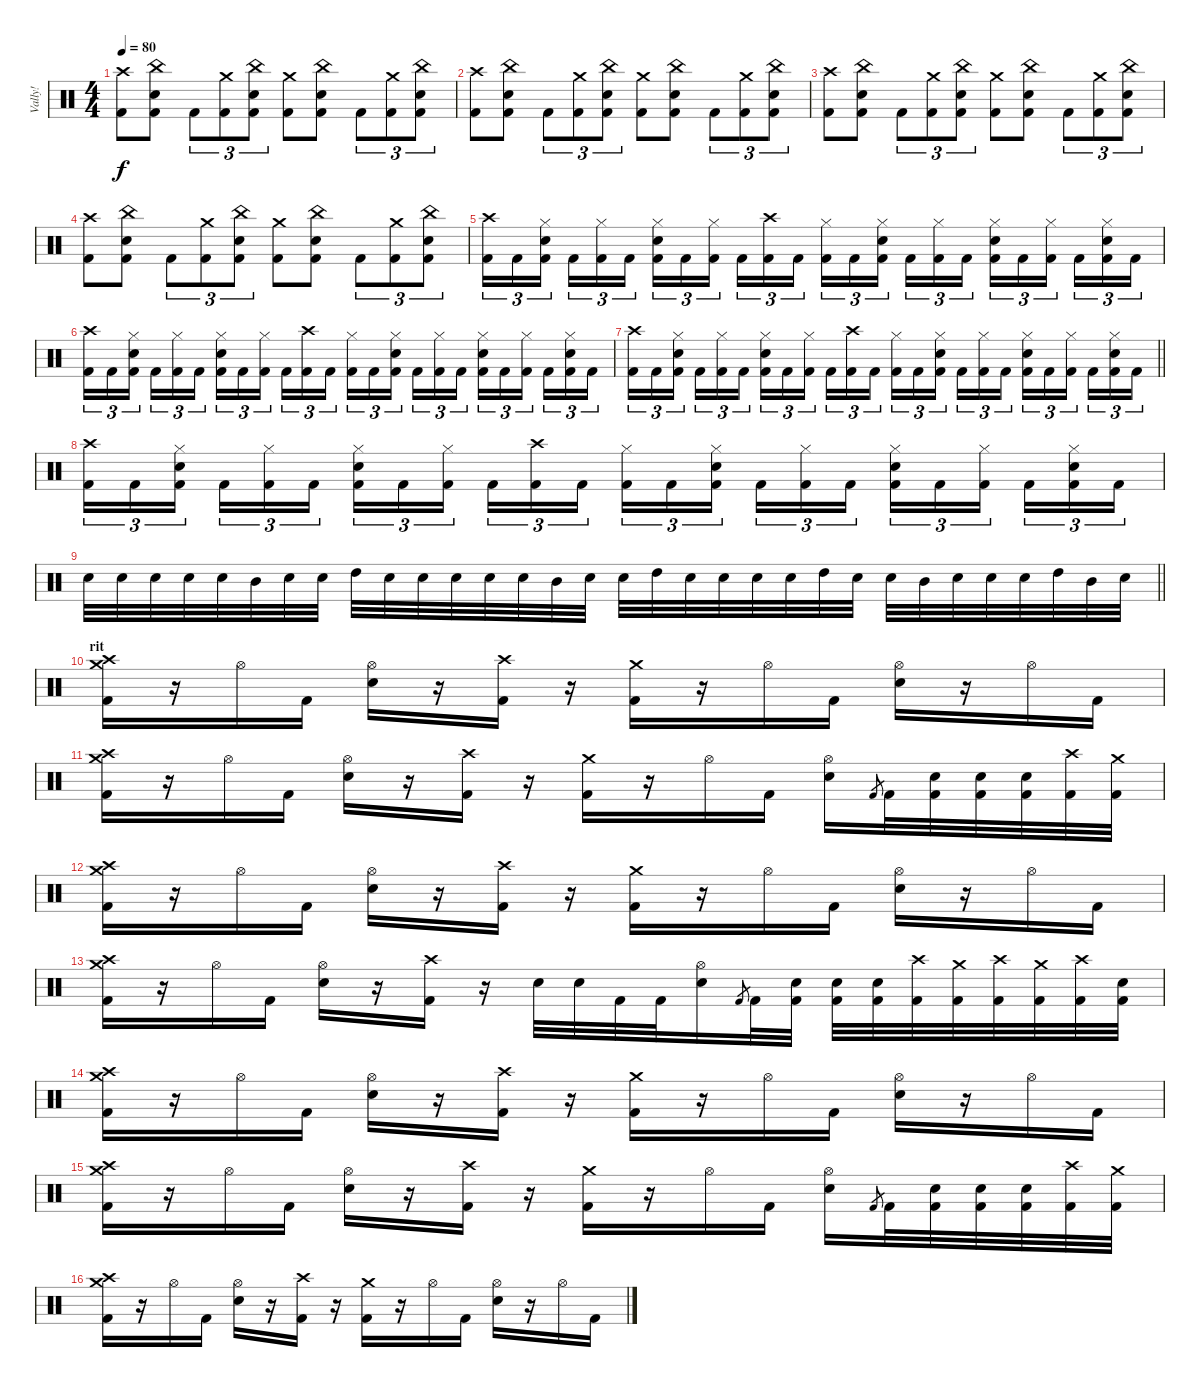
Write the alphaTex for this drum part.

\track ("Vally!" "Vally!") {instrument percussion}
\staff {score}
\articulation defaults
\ts (4 4)
\tempo 80
\clef neutral
\ks c
("Crash high (hit)" "Kick (hit) 2").8{dy f} ("China (hit)" "Electric Snare (hit)" "Kick (hit) 2").8 "Kick (hit) 2".8{tu (3 2)} ("Crash medium (hit)" "Kick (hit) 2").8{tu (3 2)} ("China (hit)" "Electric Snare (hit)" "Kick (hit) 2").8{tu (3 2)} ("Crash medium (hit)" "Kick (hit) 2").8 ("China (hit)" "Electric Snare (hit)" "Kick (hit) 2").8 "Kick (hit) 2".8{tu (3 2)} ("Crash medium (hit)" "Kick (hit) 2").8{tu (3 2)} ("China (hit)" "Electric Snare (hit)" "Kick (hit) 2").8{tu (3 2)} |
("Crash high (hit)" "Kick (hit) 2").8 ("China (hit)" "Electric Snare (hit)" "Kick (hit) 2").8 "Kick (hit) 2".8{tu (3 2)} ("Crash medium (hit)" "Kick (hit) 2").8{tu (3 2)} ("China (hit)" "Electric Snare (hit)" "Kick (hit) 2").8{tu (3 2)} ("Crash medium (hit)" "Kick (hit) 2").8 ("China (hit)" "Electric Snare (hit)" "Kick (hit) 2").8 "Kick (hit) 2".8{tu (3 2)} ("Crash medium (hit)" "Kick (hit) 2").8{tu (3 2)} ("China (hit)" "Electric Snare (hit)" "Kick (hit) 2").8{tu (3 2)} |
("Crash high (hit)" "Kick (hit) 2").8 ("China (hit)" "Electric Snare (hit)" "Kick (hit) 2").8 "Kick (hit) 2".8{tu (3 2)} ("Crash medium (hit)" "Kick (hit) 2").8{tu (3 2)} ("China (hit)" "Electric Snare (hit)" "Kick (hit) 2").8{tu (3 2)} ("Crash medium (hit)" "Kick (hit) 2").8 ("China (hit)" "Electric Snare (hit)" "Kick (hit) 2").8 "Kick (hit) 2".8{tu (3 2)} ("Crash medium (hit)" "Kick (hit) 2").8{tu (3 2)} ("China (hit)" "Electric Snare (hit)" "Kick (hit) 2").8{tu (3 2)} |
("Crash high (hit)" "Kick (hit) 2").8 ("China (hit)" "Electric Snare (hit)" "Kick (hit) 2").8 "Kick (hit) 2".8{tu (3 2)} ("Crash medium (hit)" "Kick (hit) 2").8{tu (3 2)} ("China (hit)" "Electric Snare (hit)" "Kick (hit) 2").8{tu (3 2)} ("Crash medium (hit)" "Kick (hit) 2").8 ("China (hit)" "Electric Snare (hit)" "Kick (hit) 2").8 "Kick (hit) 2".8{tu (3 2)} ("Crash medium (hit)" "Kick (hit) 2").8{tu (3 2)} ("China (hit)" "Electric Snare (hit)" "Kick (hit) 2").8{tu (3 2)} |
("Crash high (hit)" "Kick (hit) 2").16{tu (3 2)} "Kick (hit) 2".16{tu (3 2)} ("Hi-Hat (closed)" "Electric Snare (hit)" "Kick (hit) 2").16{tu (3 2) beam splitsecondary} "Kick (hit) 2".16{tu (3 2)} ("Hi-Hat (closed)" "Kick (hit) 2").16{tu (3 2)} "Kick (hit) 2".16{tu (3 2)} ("Hi-Hat (closed)" "Electric Snare (hit)" "Kick (hit) 2").16{tu (3 2)} "Kick (hit) 2".16{tu (3 2)} ("Hi-Hat (closed)" "Kick (hit) 2").16{tu (3 2) beam splitsecondary} "Kick (hit) 2".16{tu (3 2)} ("Crash high (hit)" "Kick (hit) 2").16{tu (3 2)} "Kick (hit) 2".16{tu (3 2)} ("Hi-Hat (closed)" "Kick (hit) 2").16{tu (3 2)} "Kick (hit) 2".16{tu (3 2)} ("Hi-Hat (closed)" "Electric Snare (hit)" "Kick (hit) 2").16{tu (3 2) beam splitsecondary} "Kick (hit) 2".16{tu (3 2)} ("Hi-Hat (closed)" "Kick (hit) 2").16{tu (3 2)} "Kick (hit) 2".16{tu (3 2)} ("Hi-Hat (closed)" "Electric Snare (hit)" "Kick (hit) 2").16{tu (3 2)} "Kick (hit) 2".16{tu (3 2)} ("Hi-Hat (closed)" "Kick (hit) 2").16{tu (3 2) beam splitsecondary} "Kick (hit) 2".16{tu (3 2)} ("Hi-Hat (closed)" "Electric Snare (hit)" "Kick (hit) 2").16{tu (3 2)} "Kick (hit) 2".16{tu (3 2)} |
("Crash high (hit)" "Kick (hit) 2").16{tu (3 2)} "Kick (hit) 2".16{tu (3 2)} ("Hi-Hat (closed)" "Electric Snare (hit)" "Kick (hit) 2").16{tu (3 2) beam splitsecondary} "Kick (hit) 2".16{tu (3 2)} ("Hi-Hat (closed)" "Kick (hit) 2").16{tu (3 2)} "Kick (hit) 2".16{tu (3 2)} ("Hi-Hat (closed)" "Electric Snare (hit)" "Kick (hit) 2").16{tu (3 2)} "Kick (hit) 2".16{tu (3 2)} ("Hi-Hat (closed)" "Kick (hit) 2").16{tu (3 2) beam splitsecondary} "Kick (hit) 2".16{tu (3 2)} ("Crash high (hit)" "Kick (hit) 2").16{tu (3 2)} "Kick (hit) 2".16{tu (3 2)} ("Hi-Hat (closed)" "Kick (hit) 2").16{tu (3 2)} "Kick (hit) 2".16{tu (3 2)} ("Hi-Hat (closed)" "Electric Snare (hit)" "Kick (hit) 2").16{tu (3 2) beam splitsecondary} "Kick (hit) 2".16{tu (3 2)} ("Hi-Hat (closed)" "Kick (hit) 2").16{tu (3 2)} "Kick (hit) 2".16{tu (3 2)} ("Hi-Hat (closed)" "Electric Snare (hit)" "Kick (hit) 2").16{tu (3 2)} "Kick (hit) 2".16{tu (3 2)} ("Hi-Hat (closed)" "Kick (hit) 2").16{tu (3 2) beam splitsecondary} "Kick (hit) 2".16{tu (3 2)} ("Hi-Hat (closed)" "Electric Snare (hit)" "Kick (hit) 2").16{tu (3 2)} "Kick (hit) 2".16{tu (3 2)} |
\barLineRight lightlight
("Crash high (hit)" "Kick (hit) 2").16{tu (3 2)} "Kick (hit) 2".16{tu (3 2)} ("Hi-Hat (closed)" "Electric Snare (hit)" "Kick (hit) 2").16{tu (3 2) beam splitsecondary} "Kick (hit) 2".16{tu (3 2)} ("Hi-Hat (closed)" "Kick (hit) 2").16{tu (3 2)} "Kick (hit) 2".16{tu (3 2)} ("Hi-Hat (closed)" "Electric Snare (hit)" "Kick (hit) 2").16{tu (3 2)} "Kick (hit) 2".16{tu (3 2)} ("Hi-Hat (closed)" "Kick (hit) 2").16{tu (3 2) beam splitsecondary} "Kick (hit) 2".16{tu (3 2)} ("Crash high (hit)" "Kick (hit) 2").16{tu (3 2)} "Kick (hit) 2".16{tu (3 2)} ("Hi-Hat (closed)" "Kick (hit) 2").16{tu (3 2)} "Kick (hit) 2".16{tu (3 2)} ("Hi-Hat (closed)" "Electric Snare (hit)" "Kick (hit) 2").16{tu (3 2) beam splitsecondary} "Kick (hit) 2".16{tu (3 2)} ("Hi-Hat (closed)" "Kick (hit) 2").16{tu (3 2)} "Kick (hit) 2".16{tu (3 2)} ("Hi-Hat (closed)" "Electric Snare (hit)" "Kick (hit) 2").16{tu (3 2)} "Kick (hit) 2".16{tu (3 2)} ("Hi-Hat (closed)" "Kick (hit) 2").16{tu (3 2) beam splitsecondary} "Kick (hit) 2".16{tu (3 2)} ("Hi-Hat (closed)" "Electric Snare (hit)" "Kick (hit) 2").16{tu (3 2)} "Kick (hit) 2".16{tu (3 2)} |
("Crash high (hit)" "Kick (hit) 2").16{tu (3 2)} "Kick (hit) 2".16{tu (3 2)} ("Hi-Hat (closed)" "Electric Snare (hit)" "Kick (hit) 2").16{tu (3 2) beam splitsecondary} "Kick (hit) 2".16{tu (3 2)} ("Hi-Hat (closed)" "Kick (hit) 2").16{tu (3 2)} "Kick (hit) 2".16{tu (3 2)} ("Hi-Hat (closed)" "Electric Snare (hit)" "Kick (hit) 2").16{tu (3 2)} "Kick (hit) 2".16{tu (3 2)} ("Hi-Hat (closed)" "Kick (hit) 2").16{tu (3 2) beam splitsecondary} "Kick (hit) 2".16{tu (3 2)} ("Crash high (hit)" "Kick (hit) 2").16{tu (3 2)} "Kick (hit) 2".16{tu (3 2)} ("Hi-Hat (closed)" "Kick (hit) 2").16{tu (3 2)} "Kick (hit) 2".16{tu (3 2)} ("Hi-Hat (closed)" "Electric Snare (hit)" "Kick (hit) 2").16{tu (3 2) beam splitsecondary} "Kick (hit) 2".16{tu (3 2)} ("Hi-Hat (closed)" "Kick (hit) 2").16{tu (3 2)} "Kick (hit) 2".16{tu (3 2)} ("Hi-Hat (closed)" "Electric Snare (hit)" "Kick (hit) 2").16{tu (3 2)} "Kick (hit) 2".16{tu (3 2)} ("Hi-Hat (closed)" "Kick (hit) 2").16{tu (3 2) beam splitsecondary} "Kick (hit) 2".16{tu (3 2)} ("Hi-Hat (closed)" "Electric Snare (hit)" "Kick (hit) 2").16{tu (3 2)} "Kick (hit) 2".16{tu (3 2)} |
\barLineRight lightlight "Snare (hit) 2".32 "Snare (hit) 2".32 "Snare (hit) 2".32 "Snare (hit) 2".32 "Snare (hit) 2".32 "Mid Tom (hit)".32 "Snare (hit) 2".32 "Snare (hit) 2".32 "High Tom (hit)".32 "Snare (hit) 2".32 "Snare (hit) 2".32 "Snare (hit) 2".32 "Snare (hit) 2".32 "Snare (hit) 2".32 "Mid Tom (hit)".32 "Snare (hit) 2".32 "Snare (hit) 2".32 "High Tom (hit)".32 "Snare (hit) 2".32 "Snare (hit) 2".32 "Snare (hit) 2".32 "Snare (hit) 2".32 "High Tom (hit)".32 "Snare (hit) 2".32 "Snare (hit) 2".32 "Mid Tom (hit)".32 "Snare (hit) 2".32 "Snare (hit) 2".32 "Snare (hit) 2".32 "High Tom (hit)".32 "Mid Tom (hit)".32 "Snare (hit) 2".32
|
\section ("" "rit")
("Crash high (hit)" "Crash medium (hit)" "Kick (hit) 2").16 r.16 "Hi-Hat (open)".16 "Kick (hit) 2".16 ("Hi-Hat (open)" "Electric Snare (hit)").16 r.16 ("Crash high (hit)" "Kick (hit) 2").16 r.16 ("Crash medium (hit)" "Kick (hit) 2").16 r.16 "Hi-Hat (open)".16 "Kick (hit) 2".16 ("Hi-Hat (open)" "Electric Snare (hit)").16 r.16 "Hi-Hat (open)".16 "Kick (hit) 2".16 |
("Crash high (hit)" "Crash medium (hit)" "Kick (hit) 2").16 r.16 "Hi-Hat (open)".16 "Kick (hit) 2".16 ("Hi-Hat (open)" "Electric Snare (hit)").16 r.16 ("Crash high (hit)" "Kick (hit) 2").16 r.16 ("Crash medium (hit)" "Kick (hit) 2").16 r.16 "Hi-Hat (open)".16 "Kick (hit) 2".16 ("Hi-Hat (open)" "Electric Snare (hit)").16 "Kick (hit) 2".8{gr} "Kick (hit) 2".32 ("Electric Snare (hit)" "Kick (hit) 2").32 ("Electric Snare (hit)" "Kick (hit) 2").32 ("Electric Snare (hit)" "Kick (hit) 2").32 ("Crash high (hit)" "Kick (hit) 2").32 ("Crash medium (hit)" "Kick (hit) 2").32 |
("Crash high (hit)" "Crash medium (hit)" "Kick (hit) 2").16 r.16 "Hi-Hat (open)".16 "Kick (hit) 2".16 ("Hi-Hat (open)" "Electric Snare (hit)").16 r.16 ("Crash high (hit)" "Kick (hit) 2").16 r.16 ("Crash medium (hit)" "Kick (hit) 2").16 r.16 "Hi-Hat (open)".16 "Kick (hit) 2".16 ("Hi-Hat (open)" "Electric Snare (hit)").16 r.16 "Hi-Hat (open)".16 "Kick (hit) 2".16 |
("Crash high (hit)" "Crash medium (hit)" "Kick (hit) 2").16 r.16 "Hi-Hat (open)".16 "Kick (hit) 2".16 ("Hi-Hat (open)" "Electric Snare (hit)").16 r.16 ("Crash high (hit)" "Kick (hit) 2").16 r.16 "Electric Snare (hit)".32 "Electric Snare (hit)".32 "Kick (hit) 2".32 "Kick (hit) 2".32 ("Hi-Hat (open)" "Electric Snare (hit)").16 "Kick (hit) 2".8{gr} "Kick (hit) 2".32 ("Electric Snare (hit)" "Kick (hit) 2").32 ("Electric Snare (hit)" "Kick (hit) 2").32 ("Electric Snare (hit)" "Kick (hit) 2").32 ("Crash high (hit)" "Kick (hit) 2").32 ("Crash medium (hit)" "Kick (hit) 2").32 ("Crash high (hit)" "Kick (hit) 2").32 ("Crash medium (hit)" "Kick (hit) 2").32 ("Crash high (hit)" "Kick (hit) 2").32 ("Electric Snare (hit)" "Kick (hit) 2").32 |
("Crash high (hit)" "Crash medium (hit)" "Kick (hit) 2").16 r.16 "Hi-Hat (open)".16 "Kick (hit) 2".16 ("Hi-Hat (open)" "Electric Snare (hit)").16 r.16 ("Crash high (hit)" "Kick (hit) 2").16 r.16 ("Crash medium (hit)" "Kick (hit) 2").16 r.16 "Hi-Hat (open)".16 "Kick (hit) 2".16 ("Hi-Hat (open)" "Electric Snare (hit)").16 r.16 "Hi-Hat (open)".16 "Kick (hit) 2".16 |
("Crash high (hit)" "Crash medium (hit)" "Kick (hit) 2").16 r.16 "Hi-Hat (open)".16 "Kick (hit) 2".16 ("Hi-Hat (open)" "Electric Snare (hit)").16 r.16 ("Crash high (hit)" "Kick (hit) 2").16 r.16 ("Crash medium (hit)" "Kick (hit) 2").16 r.16 "Hi-Hat (open)".16 "Kick (hit) 2".16 ("Hi-Hat (open)" "Electric Snare (hit)").16 "Kick (hit) 2".8{gr} "Kick (hit) 2".32 ("Electric Snare (hit)" "Kick (hit) 2").32 ("Electric Snare (hit)" "Kick (hit) 2").32 ("Electric Snare (hit)" "Kick (hit) 2").32 ("Crash high (hit)" "Kick (hit) 2").32 ("Crash medium (hit)" "Kick (hit) 2").32 |
("Crash high (hit)" "Crash medium (hit)" "Kick (hit) 2").16 r.16 "Hi-Hat (open)".16 "Kick (hit) 2".16 ("Hi-Hat (open)" "Electric Snare (hit)").16 r.16 ("Crash high (hit)" "Kick (hit) 2").16 r.16 ("Crash medium (hit)" "Kick (hit) 2").16 r.16 "Hi-Hat (open)".16 "Kick (hit) 2".16 ("Hi-Hat (open)" "Electric Snare (hit)").16 r.16 "Hi-Hat (open)".16 "Kick (hit) 2".16
